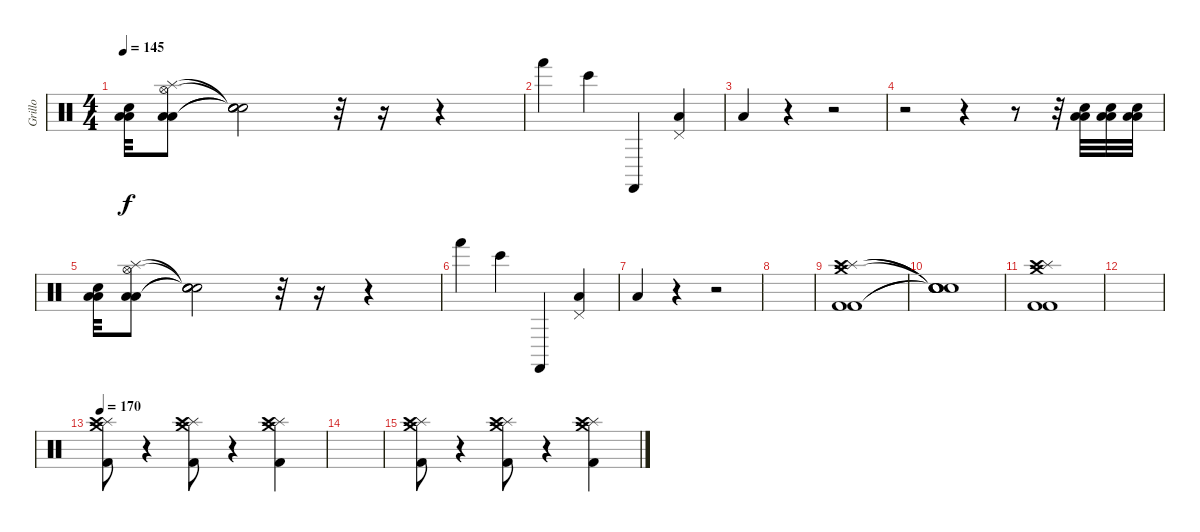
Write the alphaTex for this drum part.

\track ("Grillo" "Grillo") {instrument percussion}
\staff {score}
\articulation defaults
\ts (4 4)
\tempo 145
\clef neutral
\ks c
("Low Floor Tom (hit)" "Low Tom (hit)" "Snare (hit) 2").32{dy f} ("Low Floor Tom (hit)" "Splash (hit)" "Low Tom (hit)" "Hi-Hat (open)").8 ("Snare (hit)"{t} "Snare (hit)"{t} "Snare (hit)"{t} "Snare (hit)"{t}).2 r.32 r.16 r.4 |
"Hand (hit)".4 "Bongo High (hit)".4 "Castanets (hit)".4 ("Pedal Hi-Hat (hit)" "Low Floor Tom (hit)").4 |
"Low Floor Tom (hit)".4 r.4 r.2 |
r.2 r.4 r.8 r.32 ("Low Floor Tom (hit)" "Low Tom (hit)" "Snare (hit) 2").32 ("Low Floor Tom (hit)" "Low Tom (hit)" "Snare (hit) 2").32 ("Low Floor Tom (hit)" "Low Tom (hit)" "Snare (hit) 2").32 |
("Low Floor Tom (hit)" "Low Tom (hit)" "Snare (hit) 2").32 ("Low Floor Tom (hit)" "Splash (hit)" "Low Tom (hit)" "Hi-Hat (open)").8 ("Snare (hit)"{t} "Snare (hit)"{t} "Snare (hit)"{t} "Snare (hit)"{t}).2 r.32 r.16 r.4 |
"Hand (hit)".4 "Bongo High (hit)".4 "Castanets (hit)".4 ("Pedal Hi-Hat (hit)" "Low Floor Tom (hit)").4 |
"Low Floor Tom (hit)".4 r.4 r.2 |
|
("Splash (hit)" "Crash high (hit)" "Crash medium (hit)" "Kick (hit) 2" "Kick (hit) 2").1{bd 240} |
("Snare (hit)"{t} "Snare (hit)"{t} "Snare (hit)"{t} "Snare (hit)"{t} "Snare (hit)"{t}).1 |
("Splash (hit)" "Crash high (hit)" "Crash medium (hit)" "Kick (hit) 2" "Kick (hit) 2").1{bd 240} |
|
\tempo 170
("Splash (hit)" "Crash high (hit)" "Crash medium (hit)" "Kick (hit) 2").8 r.4 ("Splash (hit)" "Crash high (hit)" "Crash medium (hit)" "Kick (hit) 2").8 r.4 ("Splash (hit)" "Crash high (hit)" "Crash medium (hit)" "Kick (hit) 2").4 |
|
("Splash (hit)" "Crash high (hit)" "Crash medium (hit)" "Kick (hit) 2").8 r.4 ("Splash (hit)" "Crash high (hit)" "Crash medium (hit)" "Kick (hit) 2").8 r.4 ("Splash (hit)" "Crash high (hit)" "Crash medium (hit)" "Kick (hit) 2").4
